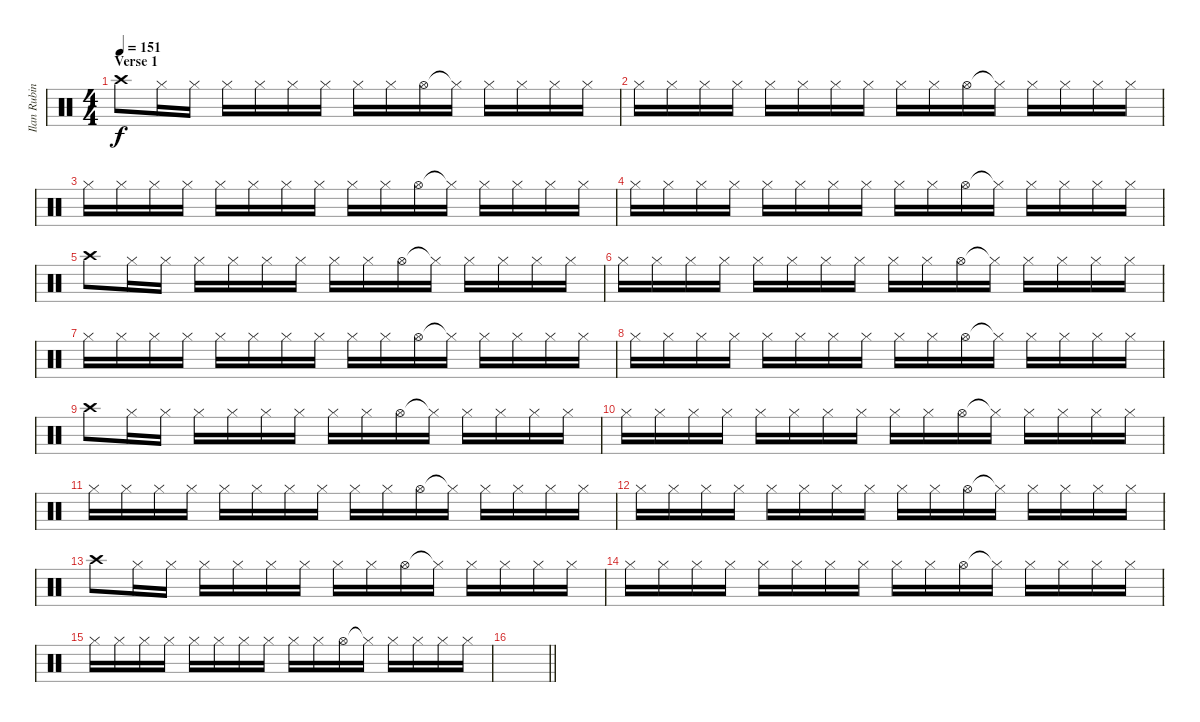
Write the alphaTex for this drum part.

\track ("Ilan Rubin [Drums]" "Ilan Rubin") {instrument percussion}
\staff {score}
\articulation defaults
\ts (4 4)
\section ("" "Verse 1")
\tempo 151
\clef neutral
\ks c "Crash high (hit)".8{dy f} "Hi-Hat (closed)".16 "Hi-Hat (closed)".16 "Hi-Hat (closed)".16 "Hi-Hat (closed)".16 "Hi-Hat (closed)".16 "Hi-Hat (closed)".16 "Hi-Hat (closed)".16 "Hi-Hat (closed)".16 "Hi-Hat (open)".16 "Hi-Hat (closed)"{t}.16 "Hi-Hat (closed)".16 "Hi-Hat (closed)".16 "Hi-Hat (closed)".16 "Hi-Hat (closed)".16
|
"Hi-Hat (closed)".16 "Hi-Hat (closed)".16 "Hi-Hat (closed)".16 "Hi-Hat (closed)".16 "Hi-Hat (closed)".16 "Hi-Hat (closed)".16 "Hi-Hat (closed)".16 "Hi-Hat (closed)".16 "Hi-Hat (closed)".16 "Hi-Hat (closed)".16 "Hi-Hat (open)".16 "Hi-Hat (closed)"{t}.16 "Hi-Hat (closed)".16 "Hi-Hat (closed)".16 "Hi-Hat (closed)".16 "Hi-Hat (closed)".16 |
"Hi-Hat (closed)".16 "Hi-Hat (closed)".16 "Hi-Hat (closed)".16 "Hi-Hat (closed)".16 "Hi-Hat (closed)".16 "Hi-Hat (closed)".16 "Hi-Hat (closed)".16 "Hi-Hat (closed)".16 "Hi-Hat (closed)".16 "Hi-Hat (closed)".16 "Hi-Hat (open)".16 "Hi-Hat (closed)"{t}.16 "Hi-Hat (closed)".16 "Hi-Hat (closed)".16 "Hi-Hat (closed)".16 "Hi-Hat (closed)".16 |
"Hi-Hat (closed)".16 "Hi-Hat (closed)".16 "Hi-Hat (closed)".16 "Hi-Hat (closed)".16 "Hi-Hat (closed)".16 "Hi-Hat (closed)".16 "Hi-Hat (closed)".16 "Hi-Hat (closed)".16 "Hi-Hat (closed)".16 "Hi-Hat (closed)".16 "Hi-Hat (open)".16 "Hi-Hat (closed)"{t}.16 "Hi-Hat (closed)".16 "Hi-Hat (closed)".16 "Hi-Hat (closed)".16 "Hi-Hat (closed)".16 |
"Crash high (hit)".8 "Hi-Hat (closed)".16 "Hi-Hat (closed)".16 "Hi-Hat (closed)".16 "Hi-Hat (closed)".16 "Hi-Hat (closed)".16 "Hi-Hat (closed)".16 "Hi-Hat (closed)".16 "Hi-Hat (closed)".16 "Hi-Hat (open)".16 "Hi-Hat (closed)"{t}.16 "Hi-Hat (closed)".16 "Hi-Hat (closed)".16 "Hi-Hat (closed)".16 "Hi-Hat (closed)".16 |
"Hi-Hat (closed)".16 "Hi-Hat (closed)".16 "Hi-Hat (closed)".16 "Hi-Hat (closed)".16 "Hi-Hat (closed)".16 "Hi-Hat (closed)".16 "Hi-Hat (closed)".16 "Hi-Hat (closed)".16 "Hi-Hat (closed)".16 "Hi-Hat (closed)".16 "Hi-Hat (open)".16 "Hi-Hat (closed)"{t}.16 "Hi-Hat (closed)".16 "Hi-Hat (closed)".16 "Hi-Hat (closed)".16 "Hi-Hat (closed)".16 |
"Hi-Hat (closed)".16 "Hi-Hat (closed)".16 "Hi-Hat (closed)".16 "Hi-Hat (closed)".16 "Hi-Hat (closed)".16 "Hi-Hat (closed)".16 "Hi-Hat (closed)".16 "Hi-Hat (closed)".16 "Hi-Hat (closed)".16 "Hi-Hat (closed)".16 "Hi-Hat (open)".16 "Hi-Hat (closed)"{t}.16 "Hi-Hat (closed)".16 "Hi-Hat (closed)".16 "Hi-Hat (closed)".16 "Hi-Hat (closed)".16 |
"Hi-Hat (closed)".16 "Hi-Hat (closed)".16 "Hi-Hat (closed)".16 "Hi-Hat (closed)".16 "Hi-Hat (closed)".16 "Hi-Hat (closed)".16 "Hi-Hat (closed)".16 "Hi-Hat (closed)".16 "Hi-Hat (closed)".16 "Hi-Hat (closed)".16 "Hi-Hat (open)".16 "Hi-Hat (closed)"{t}.16 "Hi-Hat (closed)".16 "Hi-Hat (closed)".16 "Hi-Hat (closed)".16 "Hi-Hat (closed)".16 |
"Crash high (hit)".8 "Hi-Hat (closed)".16 "Hi-Hat (closed)".16 "Hi-Hat (closed)".16 "Hi-Hat (closed)".16 "Hi-Hat (closed)".16 "Hi-Hat (closed)".16 "Hi-Hat (closed)".16 "Hi-Hat (closed)".16 "Hi-Hat (open)".16 "Hi-Hat (closed)"{t}.16 "Hi-Hat (closed)".16 "Hi-Hat (closed)".16 "Hi-Hat (closed)".16 "Hi-Hat (closed)".16 |
"Hi-Hat (closed)".16 "Hi-Hat (closed)".16 "Hi-Hat (closed)".16 "Hi-Hat (closed)".16 "Hi-Hat (closed)".16 "Hi-Hat (closed)".16 "Hi-Hat (closed)".16 "Hi-Hat (closed)".16 "Hi-Hat (closed)".16 "Hi-Hat (closed)".16 "Hi-Hat (open)".16 "Hi-Hat (closed)"{t}.16 "Hi-Hat (closed)".16 "Hi-Hat (closed)".16 "Hi-Hat (closed)".16 "Hi-Hat (closed)".16 |
"Hi-Hat (closed)".16 "Hi-Hat (closed)".16 "Hi-Hat (closed)".16 "Hi-Hat (closed)".16 "Hi-Hat (closed)".16 "Hi-Hat (closed)".16 "Hi-Hat (closed)".16 "Hi-Hat (closed)".16 "Hi-Hat (closed)".16 "Hi-Hat (closed)".16 "Hi-Hat (open)".16 "Hi-Hat (closed)"{t}.16 "Hi-Hat (closed)".16 "Hi-Hat (closed)".16 "Hi-Hat (closed)".16 "Hi-Hat (closed)".16 |
"Hi-Hat (closed)".16 "Hi-Hat (closed)".16 "Hi-Hat (closed)".16 "Hi-Hat (closed)".16 "Hi-Hat (closed)".16 "Hi-Hat (closed)".16 "Hi-Hat (closed)".16 "Hi-Hat (closed)".16 "Hi-Hat (closed)".16 "Hi-Hat (closed)".16 "Hi-Hat (open)".16 "Hi-Hat (closed)"{t}.16 "Hi-Hat (closed)".16 "Hi-Hat (closed)".16 "Hi-Hat (closed)".16 "Hi-Hat (closed)".16 |
"Crash high (hit)".8 "Hi-Hat (closed)".16 "Hi-Hat (closed)".16 "Hi-Hat (closed)".16 "Hi-Hat (closed)".16 "Hi-Hat (closed)".16 "Hi-Hat (closed)".16 "Hi-Hat (closed)".16 "Hi-Hat (closed)".16 "Hi-Hat (open)".16 "Hi-Hat (closed)"{t}.16 "Hi-Hat (closed)".16 "Hi-Hat (closed)".16 "Hi-Hat (closed)".16 "Hi-Hat (closed)".16 |
"Hi-Hat (closed)".16 "Hi-Hat (closed)".16 "Hi-Hat (closed)".16 "Hi-Hat (closed)".16 "Hi-Hat (closed)".16 "Hi-Hat (closed)".16 "Hi-Hat (closed)".16 "Hi-Hat (closed)".16 "Hi-Hat (closed)".16 "Hi-Hat (closed)".16 "Hi-Hat (open)".16 "Hi-Hat (closed)"{t}.16 "Hi-Hat (closed)".16 "Hi-Hat (closed)".16 "Hi-Hat (closed)".16 "Hi-Hat (closed)".16 |
"Hi-Hat (closed)".16 "Hi-Hat (closed)".16 "Hi-Hat (closed)".16 "Hi-Hat (closed)".16 "Hi-Hat (closed)".16 "Hi-Hat (closed)".16 "Hi-Hat (closed)".16 "Hi-Hat (closed)".16 "Hi-Hat (closed)".16 "Hi-Hat (closed)".16 "Hi-Hat (open)".16 "Hi-Hat (closed)"{t}.16 "Hi-Hat (closed)".16 "Hi-Hat (closed)".16 "Hi-Hat (closed)".16 "Hi-Hat (closed)".16 |
\barLineRight lightlight
